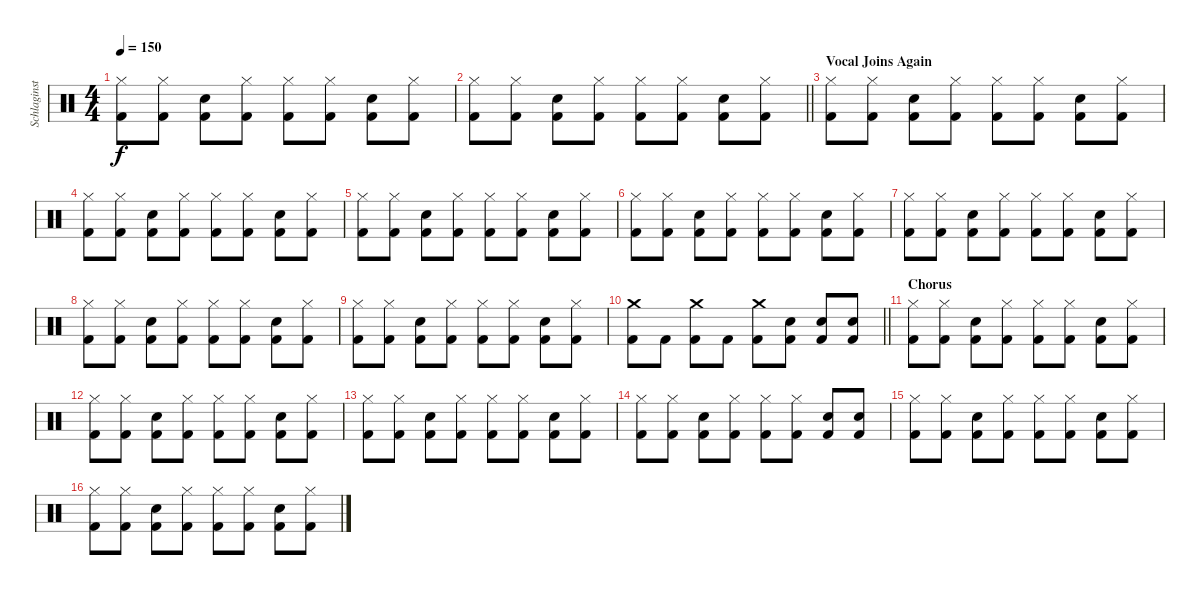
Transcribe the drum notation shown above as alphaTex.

\track ("Schlaginstrumente - Auswahl" "Schlaginst") {instrument percussion}
\staff {score}
\articulation defaults
\ts (4 4)
\tempo 150
\clef neutral
\ks c
("Hi-Hat (closed)" "Kick (hit) 2").8{dy f} ("Hi-Hat (closed)" "Kick (hit) 2").8 ("Snare (hit) 2" "Kick (hit) 2").8 ("Hi-Hat (closed)" "Kick (hit) 2").8 ("Hi-Hat (closed)" "Kick (hit) 2").8 ("Hi-Hat (closed)" "Kick (hit) 2").8 ("Snare (hit) 2" "Kick (hit) 2").8 ("Hi-Hat (closed)" "Kick (hit) 2").8 |
\barLineRight lightlight
("Hi-Hat (closed)" "Kick (hit) 2").8 ("Hi-Hat (closed)" "Kick (hit) 2").8 ("Snare (hit) 2" "Kick (hit) 2").8 ("Hi-Hat (closed)" "Kick (hit) 2").8 ("Hi-Hat (closed)" "Kick (hit) 2").8 ("Hi-Hat (closed)" "Kick (hit) 2").8 ("Snare (hit) 2" "Kick (hit) 2").8 ("Hi-Hat (closed)" "Kick (hit) 2").8 |
\section ("" "Vocal Joins Again")
("Hi-Hat (closed)" "Kick (hit) 2").8 ("Hi-Hat (closed)" "Kick (hit) 2").8 ("Snare (hit) 2" "Kick (hit) 2").8 ("Hi-Hat (closed)" "Kick (hit) 2").8 ("Hi-Hat (closed)" "Kick (hit) 2").8 ("Hi-Hat (closed)" "Kick (hit) 2").8 ("Snare (hit) 2" "Kick (hit) 2").8 ("Hi-Hat (closed)" "Kick (hit) 2").8 |
("Hi-Hat (closed)" "Kick (hit) 2").8 ("Hi-Hat (closed)" "Kick (hit) 2").8 ("Snare (hit) 2" "Kick (hit) 2").8 ("Hi-Hat (closed)" "Kick (hit) 2").8 ("Hi-Hat (closed)" "Kick (hit) 2").8 ("Hi-Hat (closed)" "Kick (hit) 2").8 ("Snare (hit) 2" "Kick (hit) 2").8 ("Hi-Hat (closed)" "Kick (hit) 2").8 |
("Hi-Hat (closed)" "Kick (hit) 2").8 ("Hi-Hat (closed)" "Kick (hit) 2").8 ("Snare (hit) 2" "Kick (hit) 2").8 ("Hi-Hat (closed)" "Kick (hit) 2").8 ("Hi-Hat (closed)" "Kick (hit) 2").8 ("Hi-Hat (closed)" "Kick (hit) 2").8 ("Snare (hit) 2" "Kick (hit) 2").8 ("Hi-Hat (closed)" "Kick (hit) 2").8 |
("Hi-Hat (closed)" "Kick (hit) 2").8 ("Hi-Hat (closed)" "Kick (hit) 2").8 ("Snare (hit) 2" "Kick (hit) 2").8 ("Hi-Hat (closed)" "Kick (hit) 2").8 ("Hi-Hat (closed)" "Kick (hit) 2").8 ("Hi-Hat (closed)" "Kick (hit) 2").8 ("Snare (hit) 2" "Kick (hit) 2").8 ("Hi-Hat (closed)" "Kick (hit) 2").8 |
("Hi-Hat (closed)" "Kick (hit) 2").8 ("Hi-Hat (closed)" "Kick (hit) 2").8 ("Snare (hit) 2" "Kick (hit) 2").8 ("Hi-Hat (closed)" "Kick (hit) 2").8 ("Hi-Hat (closed)" "Kick (hit) 2").8 ("Hi-Hat (closed)" "Kick (hit) 2").8 ("Snare (hit) 2" "Kick (hit) 2").8 ("Hi-Hat (closed)" "Kick (hit) 2").8 |
("Hi-Hat (closed)" "Kick (hit) 2").8 ("Hi-Hat (closed)" "Kick (hit) 2").8 ("Snare (hit) 2" "Kick (hit) 2").8 ("Hi-Hat (closed)" "Kick (hit) 2").8 ("Hi-Hat (closed)" "Kick (hit) 2").8 ("Hi-Hat (closed)" "Kick (hit) 2").8 ("Snare (hit) 2" "Kick (hit) 2").8 ("Hi-Hat (closed)" "Kick (hit) 2").8 |
("Hi-Hat (closed)" "Kick (hit) 2").8 ("Hi-Hat (closed)" "Kick (hit) 2").8 ("Snare (hit) 2" "Kick (hit) 2").8 ("Hi-Hat (closed)" "Kick (hit) 2").8 ("Hi-Hat (closed)" "Kick (hit) 2").8 ("Hi-Hat (closed)" "Kick (hit) 2").8 ("Snare (hit) 2" "Kick (hit) 2").8 ("Hi-Hat (closed)" "Kick (hit) 2").8 |
\barLineRight lightlight
("Crash medium (hit)" "Kick (hit) 2").8 "Kick (hit) 2".8 ("Crash medium (hit)" "Kick (hit) 2").8 "Kick (hit) 2".8 ("Crash medium (hit)" "Kick (hit) 2").8 ("Snare (hit) 2" "Kick (hit) 2").8 ("Snare (hit) 2" "Kick (hit) 2").8 ("Snare (hit) 2" "Kick (hit) 2").8 |
\section ("" "Chorus")
("Hi-Hat (closed)" "Kick (hit) 2").8 ("Hi-Hat (closed)" "Kick (hit) 2").8 ("Snare (hit) 2" "Kick (hit) 2").8 ("Hi-Hat (closed)" "Kick (hit) 2").8 ("Hi-Hat (closed)" "Kick (hit) 2").8 ("Hi-Hat (closed)" "Kick (hit) 2").8 ("Snare (hit) 2" "Kick (hit) 2").8 ("Hi-Hat (closed)" "Kick (hit) 2").8 |
("Hi-Hat (closed)" "Kick (hit) 2").8 ("Hi-Hat (closed)" "Kick (hit) 2").8 ("Snare (hit) 2" "Kick (hit) 2").8 ("Hi-Hat (closed)" "Kick (hit) 2").8 ("Hi-Hat (closed)" "Kick (hit) 2").8 ("Hi-Hat (closed)" "Kick (hit) 2").8 ("Snare (hit) 2" "Kick (hit) 2").8 ("Hi-Hat (closed)" "Kick (hit) 2").8 |
("Hi-Hat (closed)" "Kick (hit) 2").8 ("Hi-Hat (closed)" "Kick (hit) 2").8 ("Snare (hit) 2" "Kick (hit) 2").8 ("Hi-Hat (closed)" "Kick (hit) 2").8 ("Hi-Hat (closed)" "Kick (hit) 2").8 ("Hi-Hat (closed)" "Kick (hit) 2").8 ("Snare (hit) 2" "Kick (hit) 2").8 ("Hi-Hat (closed)" "Kick (hit) 2").8 |
("Hi-Hat (closed)" "Kick (hit) 2").8 ("Hi-Hat (closed)" "Kick (hit) 2").8 ("Snare (hit) 2" "Kick (hit) 2").8 ("Hi-Hat (closed)" "Kick (hit) 2").8 ("Hi-Hat (closed)" "Kick (hit) 2").8 ("Hi-Hat (closed)" "Kick (hit) 2").8 ("Snare (hit) 2" "Kick (hit) 2").8 ("Snare (hit) 2" "Kick (hit) 2").8 |
("Hi-Hat (closed)" "Kick (hit) 2").8 ("Hi-Hat (closed)" "Kick (hit) 2").8 ("Snare (hit) 2" "Kick (hit) 2").8 ("Hi-Hat (closed)" "Kick (hit) 2").8 ("Hi-Hat (closed)" "Kick (hit) 2").8 ("Hi-Hat (closed)" "Kick (hit) 2").8 ("Snare (hit) 2" "Kick (hit) 2").8 ("Hi-Hat (closed)" "Kick (hit) 2").8 |
("Hi-Hat (closed)" "Kick (hit) 2").8 ("Hi-Hat (closed)" "Kick (hit) 2").8 ("Snare (hit) 2" "Kick (hit) 2").8 ("Hi-Hat (closed)" "Kick (hit) 2").8 ("Hi-Hat (closed)" "Kick (hit) 2").8 ("Hi-Hat (closed)" "Kick (hit) 2").8 ("Snare (hit) 2" "Kick (hit) 2").8 ("Hi-Hat (closed)" "Kick (hit) 2").8
